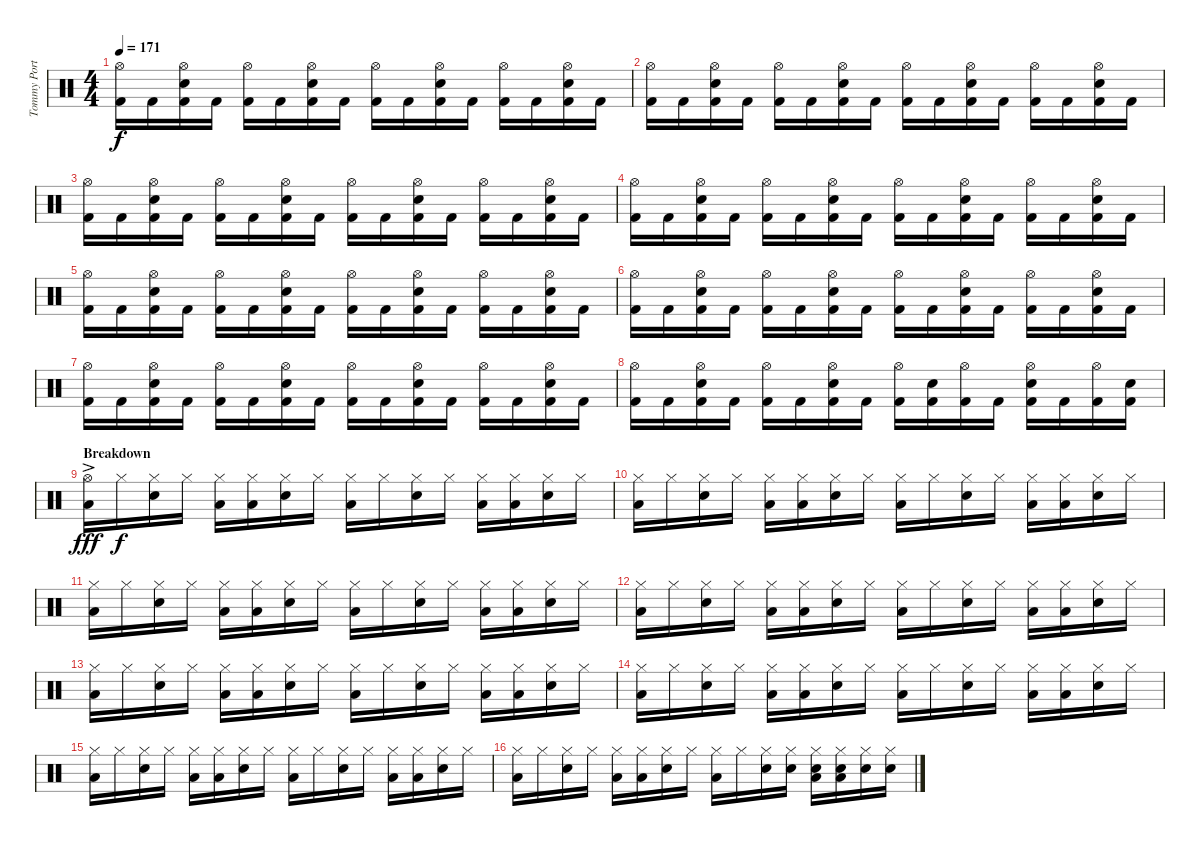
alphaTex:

\track ("Tommy Portino" "Tommy Port") {instrument percussion}
\staff {score}
\articulation defaults
\ts (4 4)
\tempo 171
\clef neutral
\ks aminor
("Kick (hit) 2" "Hi-Hat (open)").16{dy f} "Kick (hit) 2".16 ("Kick (hit) 2" "Electric Snare (hit)" "Hi-Hat (open)").16 "Kick (hit) 2".16 ("Kick (hit) 2" "Hi-Hat (open)").16 "Kick (hit) 2".16 ("Kick (hit) 2" "Electric Snare (hit)" "Hi-Hat (open)").16 "Kick (hit) 2".16 ("Kick (hit) 2" "Hi-Hat (open)").16 "Kick (hit) 2".16 ("Kick (hit) 2" "Electric Snare (hit)" "Hi-Hat (open)").16 "Kick (hit) 2".16 ("Kick (hit) 2" "Hi-Hat (open)").16 "Kick (hit) 2".16 ("Kick (hit) 2" "Electric Snare (hit)" "Hi-Hat (open)").16 "Kick (hit) 2".16 |
("Kick (hit) 2" "Hi-Hat (open)").16 "Kick (hit) 2".16 ("Kick (hit) 2" "Electric Snare (hit)" "Hi-Hat (open)").16 "Kick (hit) 2".16 ("Kick (hit) 2" "Hi-Hat (open)").16 "Kick (hit) 2".16 ("Kick (hit) 2" "Electric Snare (hit)" "Hi-Hat (open)").16 "Kick (hit) 2".16 ("Kick (hit) 2" "Hi-Hat (open)").16 "Kick (hit) 2".16 ("Kick (hit) 2" "Electric Snare (hit)" "Hi-Hat (open)").16 "Kick (hit) 2".16 ("Kick (hit) 2" "Hi-Hat (open)").16 "Kick (hit) 2".16 ("Kick (hit) 2" "Electric Snare (hit)" "Hi-Hat (open)").16 "Kick (hit) 2".16 |
("Kick (hit) 2" "Hi-Hat (open)").16 "Kick (hit) 2".16 ("Kick (hit) 2" "Electric Snare (hit)" "Hi-Hat (open)").16 "Kick (hit) 2".16 ("Kick (hit) 2" "Hi-Hat (open)").16 "Kick (hit) 2".16 ("Kick (hit) 2" "Electric Snare (hit)" "Hi-Hat (open)").16 "Kick (hit) 2".16 ("Kick (hit) 2" "Hi-Hat (open)").16 "Kick (hit) 2".16 ("Kick (hit) 2" "Electric Snare (hit)" "Hi-Hat (open)").16 "Kick (hit) 2".16 ("Kick (hit) 2" "Hi-Hat (open)").16 "Kick (hit) 2".16 ("Kick (hit) 2" "Electric Snare (hit)" "Hi-Hat (open)").16 "Kick (hit) 2".16 |
("Kick (hit) 2" "Hi-Hat (open)").16 "Kick (hit) 2".16 ("Kick (hit) 2" "Electric Snare (hit)" "Hi-Hat (open)").16 "Kick (hit) 2".16 ("Kick (hit) 2" "Hi-Hat (open)").16 "Kick (hit) 2".16 ("Kick (hit) 2" "Electric Snare (hit)" "Hi-Hat (open)").16 "Kick (hit) 2".16 ("Kick (hit) 2" "Hi-Hat (open)").16 "Kick (hit) 2".16 ("Kick (hit) 2" "Electric Snare (hit)" "Hi-Hat (open)").16 "Kick (hit) 2".16 ("Kick (hit) 2" "Hi-Hat (open)").16 "Kick (hit) 2".16 ("Kick (hit) 2" "Electric Snare (hit)" "Hi-Hat (open)").16 "Kick (hit) 2".16 |
("Kick (hit) 2" "Hi-Hat (open)").16 "Kick (hit) 2".16 ("Kick (hit) 2" "Electric Snare (hit)" "Hi-Hat (open)").16 "Kick (hit) 2".16 ("Kick (hit) 2" "Hi-Hat (open)").16 "Kick (hit) 2".16 ("Kick (hit) 2" "Electric Snare (hit)" "Hi-Hat (open)").16 "Kick (hit) 2".16 ("Kick (hit) 2" "Hi-Hat (open)").16 "Kick (hit) 2".16 ("Kick (hit) 2" "Electric Snare (hit)" "Hi-Hat (open)").16 "Kick (hit) 2".16 ("Kick (hit) 2" "Hi-Hat (open)").16 "Kick (hit) 2".16 ("Kick (hit) 2" "Electric Snare (hit)" "Hi-Hat (open)").16 "Kick (hit) 2".16 |
("Kick (hit) 2" "Hi-Hat (open)").16 "Kick (hit) 2".16 ("Kick (hit) 2" "Electric Snare (hit)" "Hi-Hat (open)").16 "Kick (hit) 2".16 ("Kick (hit) 2" "Hi-Hat (open)").16 "Kick (hit) 2".16 ("Kick (hit) 2" "Electric Snare (hit)" "Hi-Hat (open)").16 "Kick (hit) 2".16 ("Kick (hit) 2" "Hi-Hat (open)").16 "Kick (hit) 2".16 ("Kick (hit) 2" "Electric Snare (hit)" "Hi-Hat (open)").16 "Kick (hit) 2".16 ("Kick (hit) 2" "Hi-Hat (open)").16 "Kick (hit) 2".16 ("Kick (hit) 2" "Electric Snare (hit)" "Hi-Hat (open)").16 "Kick (hit) 2".16 |
("Kick (hit) 2" "Hi-Hat (open)").16 "Kick (hit) 2".16 ("Kick (hit) 2" "Electric Snare (hit)" "Hi-Hat (open)").16 "Kick (hit) 2".16 ("Kick (hit) 2" "Hi-Hat (open)").16 "Kick (hit) 2".16 ("Kick (hit) 2" "Electric Snare (hit)" "Hi-Hat (open)").16 "Kick (hit) 2".16 ("Kick (hit) 2" "Hi-Hat (open)").16 "Kick (hit) 2".16 ("Kick (hit) 2" "Electric Snare (hit)" "Hi-Hat (open)").16 "Kick (hit) 2".16 ("Kick (hit) 2" "Hi-Hat (open)").16 "Kick (hit) 2".16 ("Kick (hit) 2" "Electric Snare (hit)" "Hi-Hat (open)").16 "Kick (hit) 2".16 |
("Kick (hit) 2" "Hi-Hat (open)").16 "Kick (hit) 2".16 ("Kick (hit) 2" "Electric Snare (hit)" "Hi-Hat (open)").16 "Kick (hit) 2".16 ("Kick (hit) 2" "Hi-Hat (open)").16 "Kick (hit) 2".16 ("Kick (hit) 2" "Electric Snare (hit)" "Hi-Hat (open)").16 "Kick (hit) 2".16 ("Kick (hit) 2" "Hi-Hat (open)").16 ("Kick (hit) 2" "Electric Snare (hit)").16 ("Kick (hit) 2" "Hi-Hat (open)").16 "Kick (hit) 2".16 ("Kick (hit) 2" "Electric Snare (hit)" "Hi-Hat (open)").16 "Kick (hit) 2".16 ("Kick (hit) 2" "Hi-Hat (open)").16 ("Kick (hit) 2" "Electric Snare (hit)").16 |
\section ("" "Breakdown")
("Low Floor Tom (hit)"{ac} "Hi-Hat (open)").16{dy fff} "Hi-Hat (closed)".16{dy f} ("Electric Snare (hit)" "Hi-Hat (closed)").16 "Hi-Hat (closed)".16 ("Low Floor Tom (hit)" "Hi-Hat (closed)").16 ("Low Floor Tom (hit)" "Hi-Hat (closed)").16 ("Electric Snare (hit)" "Hi-Hat (closed)").16 "Hi-Hat (closed)".16 ("Low Floor Tom (hit)" "Hi-Hat (closed)").16 "Hi-Hat (closed)".16 ("Electric Snare (hit)" "Hi-Hat (closed)").16 "Hi-Hat (closed)".16 ("Low Floor Tom (hit)" "Hi-Hat (closed)").16 ("Low Floor Tom (hit)" "Hi-Hat (closed)").16 ("Electric Snare (hit)" "Hi-Hat (closed)").16 "Hi-Hat (closed)".16 |
("Low Floor Tom (hit)" "Hi-Hat (closed)").16 "Hi-Hat (closed)".16 ("Electric Snare (hit)" "Hi-Hat (closed)").16 "Hi-Hat (closed)".16 ("Low Floor Tom (hit)" "Hi-Hat (closed)").16 ("Low Floor Tom (hit)" "Hi-Hat (closed)").16 ("Electric Snare (hit)" "Hi-Hat (closed)").16 "Hi-Hat (closed)".16 ("Low Floor Tom (hit)" "Hi-Hat (closed)").16 "Hi-Hat (closed)".16 ("Electric Snare (hit)" "Hi-Hat (closed)").16 "Hi-Hat (closed)".16 ("Low Floor Tom (hit)" "Hi-Hat (closed)").16 ("Low Floor Tom (hit)" "Hi-Hat (closed)").16 ("Electric Snare (hit)" "Hi-Hat (closed)").16 "Hi-Hat (closed)".16 |
("Low Floor Tom (hit)" "Hi-Hat (closed)").16 "Hi-Hat (closed)".16 ("Electric Snare (hit)" "Hi-Hat (closed)").16 "Hi-Hat (closed)".16 ("Low Floor Tom (hit)" "Hi-Hat (closed)").16 ("Low Floor Tom (hit)" "Hi-Hat (closed)").16 ("Electric Snare (hit)" "Hi-Hat (closed)").16 "Hi-Hat (closed)".16 ("Low Floor Tom (hit)" "Hi-Hat (closed)").16 "Hi-Hat (closed)".16 ("Electric Snare (hit)" "Hi-Hat (closed)").16 "Hi-Hat (closed)".16 ("Low Floor Tom (hit)" "Hi-Hat (closed)").16 ("Low Floor Tom (hit)" "Hi-Hat (closed)").16 ("Electric Snare (hit)" "Hi-Hat (closed)").16 "Hi-Hat (closed)".16 |
("Low Floor Tom (hit)" "Hi-Hat (closed)").16 "Hi-Hat (closed)".16 ("Electric Snare (hit)" "Hi-Hat (closed)").16 "Hi-Hat (closed)".16 ("Low Floor Tom (hit)" "Hi-Hat (closed)").16 ("Low Floor Tom (hit)" "Hi-Hat (closed)").16 ("Electric Snare (hit)" "Hi-Hat (closed)").16 "Hi-Hat (closed)".16 ("Low Floor Tom (hit)" "Hi-Hat (closed)").16 "Hi-Hat (closed)".16 ("Electric Snare (hit)" "Hi-Hat (closed)").16 "Hi-Hat (closed)".16 ("Low Floor Tom (hit)" "Hi-Hat (closed)").16 ("Low Floor Tom (hit)" "Hi-Hat (closed)").16 ("Electric Snare (hit)" "Hi-Hat (closed)").16 "Hi-Hat (closed)".16 |
("Low Floor Tom (hit)" "Hi-Hat (closed)").16 "Hi-Hat (closed)".16 ("Electric Snare (hit)" "Hi-Hat (closed)").16 "Hi-Hat (closed)".16 ("Low Floor Tom (hit)" "Hi-Hat (closed)").16 ("Low Floor Tom (hit)" "Hi-Hat (closed)").16 ("Electric Snare (hit)" "Hi-Hat (closed)").16 "Hi-Hat (closed)".16 ("Low Floor Tom (hit)" "Hi-Hat (closed)").16 "Hi-Hat (closed)".16 ("Electric Snare (hit)" "Hi-Hat (closed)").16 "Hi-Hat (closed)".16 ("Low Floor Tom (hit)" "Hi-Hat (closed)").16 ("Low Floor Tom (hit)" "Hi-Hat (closed)").16 ("Electric Snare (hit)" "Hi-Hat (closed)").16 "Hi-Hat (closed)".16 |
("Low Floor Tom (hit)" "Hi-Hat (closed)").16 "Hi-Hat (closed)".16 ("Electric Snare (hit)" "Hi-Hat (closed)").16 "Hi-Hat (closed)".16 ("Low Floor Tom (hit)" "Hi-Hat (closed)").16 ("Low Floor Tom (hit)" "Hi-Hat (closed)").16 ("Electric Snare (hit)" "Hi-Hat (closed)").16 "Hi-Hat (closed)".16 ("Low Floor Tom (hit)" "Hi-Hat (closed)").16 "Hi-Hat (closed)".16 ("Electric Snare (hit)" "Hi-Hat (closed)").16 "Hi-Hat (closed)".16 ("Low Floor Tom (hit)" "Hi-Hat (closed)").16 ("Low Floor Tom (hit)" "Hi-Hat (closed)").16 ("Electric Snare (hit)" "Hi-Hat (closed)").16 "Hi-Hat (closed)".16 |
("Low Floor Tom (hit)" "Hi-Hat (closed)").16 "Hi-Hat (closed)".16 ("Electric Snare (hit)" "Hi-Hat (closed)").16 "Hi-Hat (closed)".16 ("Low Floor Tom (hit)" "Hi-Hat (closed)").16 ("Low Floor Tom (hit)" "Hi-Hat (closed)").16 ("Electric Snare (hit)" "Hi-Hat (closed)").16 "Hi-Hat (closed)".16 ("Low Floor Tom (hit)" "Hi-Hat (closed)").16 "Hi-Hat (closed)".16 ("Electric Snare (hit)" "Hi-Hat (closed)").16 "Hi-Hat (closed)".16 ("Low Floor Tom (hit)" "Hi-Hat (closed)").16 ("Low Floor Tom (hit)" "Hi-Hat (closed)").16 ("Electric Snare (hit)" "Hi-Hat (closed)").16 "Hi-Hat (closed)".16 |
("Low Floor Tom (hit)" "Hi-Hat (closed)").16 "Hi-Hat (closed)".16 ("Electric Snare (hit)" "Hi-Hat (closed)").16 "Hi-Hat (closed)".16 ("Low Floor Tom (hit)" "Hi-Hat (closed)").16 ("Low Floor Tom (hit)" "Hi-Hat (closed)").16 ("Electric Snare (hit)" "Hi-Hat (closed)").16 "Hi-Hat (closed)".16 ("Low Floor Tom (hit)" "Hi-Hat (closed)").16 "Hi-Hat (closed)".16 ("Electric Snare (hit)" "Hi-Hat (closed)").16 ("Electric Snare (hit)" "Hi-Hat (closed)").16 ("Low Floor Tom (hit)" "Electric Snare (hit)" "Hi-Hat (closed)").16 ("Low Floor Tom (hit)" "Electric Snare (hit)" "Hi-Hat (closed)").16 ("Electric Snare (hit)" "Hi-Hat (closed)").16 ("Electric Snare (hit)" "Hi-Hat (closed)").16
